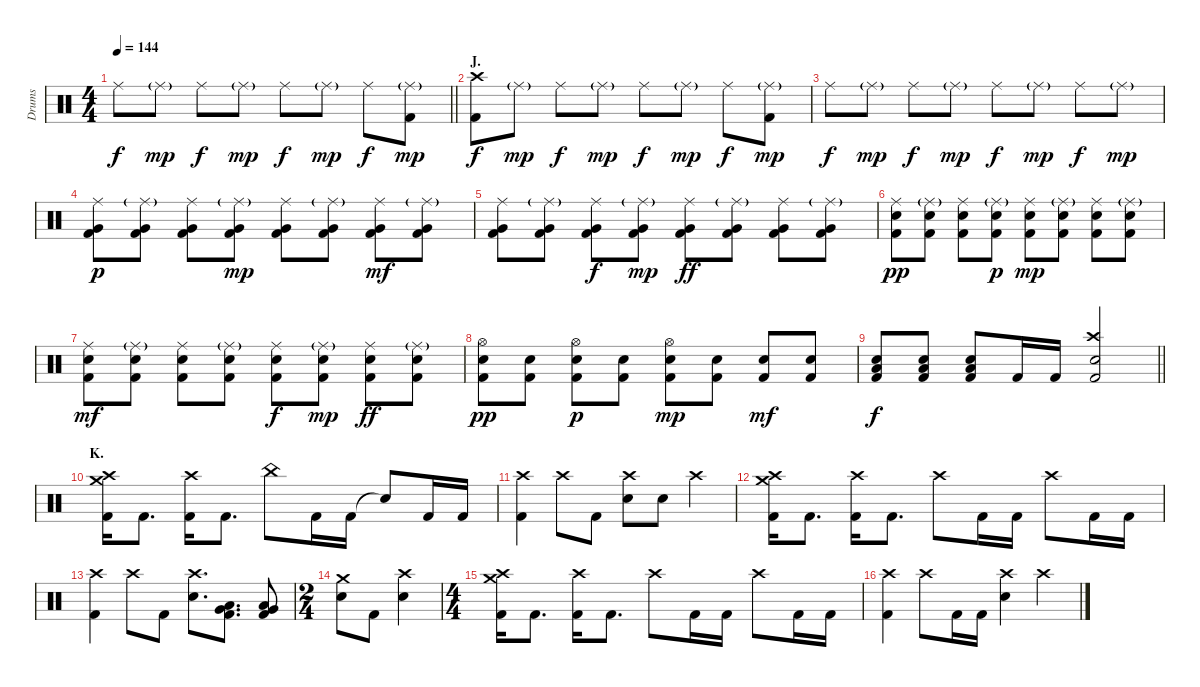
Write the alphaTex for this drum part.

\track ("Drums" "Drums") {instrument percussion}
\staff {score}
\articulation defaults
\ts (4 4)
\tempo 144
\clef neutral
\barLineRight lightlight
\ks c "Ride (middle)".8{dy f} "Ride (middle)"{g}.8{dy mp} "Ride (middle)".8{dy f} "Ride (middle)"{g}.8{dy mp} "Ride (middle)".8{dy f} "Ride (middle)"{g}.8{dy mp} "Ride (middle)".8{dy f}
("Ride (middle)"{g} "Kick (hit) 2").8{dy mp} |
\section ("" "J.")
("Crash high (hit)" "Kick (hit) 2").8{dy f} "Ride (middle)"{g}.8{dy mp} "Ride (middle)".8{dy f} "Ride (middle)"{g}.8{dy mp} "Ride (middle)".8{dy f} "Ride (middle)"{g}.8{dy mp} "Ride (middle)".8{dy f} ("Ride (middle)"{g} "Kick (hit) 2").8{dy mp} |
"Ride (middle)".8{dy f} "Ride (middle)"{g}.8{dy mp} "Ride (middle)".8{dy f} "Ride (middle)"{g}.8{dy mp} "Ride (middle)".8{dy f} "Ride (middle)"{g}.8{dy mp} "Ride (middle)".8{dy f} "Ride (middle)"{g}.8{dy mp} |
("Ride (middle)" "Very Low Tom (hit)" "Kick (hit) 2").8{dy p} ("Ride (middle)"{g} "Very Low Tom (hit)" "Kick (hit) 2").8 ("Ride (middle)" "Very Low Tom (hit)" "Kick (hit) 2").8 ("Ride (middle)"{g} "Very Low Tom (hit)" "Kick (hit) 2").8{dy mp} ("Ride (middle)" "Very Low Tom (hit)" "Kick (hit) 2").8 ("Ride (middle)"{g} "Very Low Tom (hit)" "Kick (hit) 2").8 ("Ride (middle)" "Very Low Tom (hit)" "Kick (hit) 2").8{dy mf} ("Ride (middle)"{g} "Very Low Tom (hit)" "Kick (hit) 2").8 |
("Ride (middle)" "Very Low Tom (hit)" "Kick (hit) 2").8 ("Ride (middle)"{g} "Very Low Tom (hit)" "Kick (hit) 2").8 ("Ride (middle)" "Very Low Tom (hit)" "Kick (hit) 2").8{dy f} ("Ride (middle)"{g} "Very Low Tom (hit)" "Kick (hit) 2").8{dy mp} ("Ride (middle)" "Very Low Tom (hit)" "Kick (hit) 2").8{dy ff} ("Ride (middle)"{g} "Very Low Tom (hit)" "Kick (hit) 2").8 ("Ride (middle)" "Very Low Tom (hit)" "Kick (hit) 2").8 ("Ride (middle)"{g} "Very Low Tom (hit)" "Kick (hit) 2").8 |
("Ride (middle)" "Electric Snare (hit)" "Kick (hit) 2").8{dy pp} ("Ride (middle)"{g} "Electric Snare (hit)" "Kick (hit) 2").8 ("Ride (middle)" "Electric Snare (hit)" "Kick (hit) 2").8 ("Ride (middle)"{g} "Electric Snare (hit)" "Kick (hit) 2").8{dy p} ("Ride (middle)" "Electric Snare (hit)" "Kick (hit) 2").8{dy mp} ("Ride (middle)"{g} "Electric Snare (hit)" "Kick (hit) 2").8 ("Ride (middle)" "Electric Snare (hit)" "Kick (hit) 2").8 ("Ride (middle)"{g} "Electric Snare (hit)" "Kick (hit) 2").8 |
("Ride (middle)" "Electric Snare (hit)" "Kick (hit) 2").8{dy mf} ("Ride (middle)"{g} "Electric Snare (hit)" "Kick (hit) 2").8 ("Ride (middle)" "Electric Snare (hit)" "Kick (hit) 2").8 ("Ride (middle)"{g} "Electric Snare (hit)" "Kick (hit) 2").8 ("Ride (middle)" "Electric Snare (hit)" "Kick (hit) 2").8{dy f} ("Ride (middle)"{g} "Electric Snare (hit)" "Kick (hit) 2").8{dy mp} ("Ride (middle)" "Electric Snare (hit)" "Kick (hit) 2").8{dy ff} ("Ride (middle)"{g} "Electric Snare (hit)" "Kick (hit) 2").8 |
("Hi-Hat (open)" "Electric Snare (hit)" "Kick (hit) 2").8{dy pp} ("Electric Snare (hit)" "Kick (hit) 2").8 ("Hi-Hat (open)" "Electric Snare (hit)" "Kick (hit) 2").8{dy p} ("Electric Snare (hit)" "Kick (hit) 2").8 ("Hi-Hat (open)" "Electric Snare (hit)" "Kick (hit) 2").8{dy mp} ("Electric Snare (hit)" "Kick (hit) 2").8 ("Electric Snare (hit)" "Kick (hit) 2").8{dy mf} ("Electric Snare (hit)" "Kick (hit) 2").8 |
\barLineRight lightlight
("Electric Snare (hit)" "Low Floor Tom (hit)" "Kick (hit) 2").8{dy f} ("Electric Snare (hit)" "Low Floor Tom (hit)" "Kick (hit) 2").8 ("Electric Snare (hit)" "Low Floor Tom (hit)" "Kick (hit) 2").8 "Kick (hit) 2".16 "Kick (hit) 2".16 ("Crash high (hit)" "Electric Snare (hit)" "Kick (hit) 2").2 |
\section ("" "K.")
("Crash medium (hit)" "Crash high (hit)" "Kick (hit) 2").16 "Kick (hit) 2".8{d} ("Crash high (hit)" "Kick (hit) 2").16 "Kick (hit) 2".8{d} "China (hit)".8 "Kick (hit) 2".16 "Kick (hit) 2".16 "Snare (hit)"{t}.8 "Kick (hit) 2".16 "Kick (hit) 2".16 |
("Crash high (hit)" "Kick (hit) 2").4 "Crash high (hit)".8 "Kick (hit) 2".8 ("Crash high (hit)" "Electric Snare (hit)").8 "Electric Snare (hit)".8 "Crash high (hit)".4 |
("Crash medium (hit)" "Crash high (hit)" "Kick (hit) 2").16 "Kick (hit) 2".8{d} ("Crash high (hit)" "Kick (hit) 2").16 "Kick (hit) 2".8{d} "Crash high (hit)".8 "Kick (hit) 2".16 "Kick (hit) 2".16 "Crash high (hit)".8 "Kick (hit) 2".16 "Kick (hit) 2".16 |
("Crash high (hit)" "Kick (hit) 2").4 "Crash high (hit)".8 "Kick (hit) 2".8 ("Crash high (hit)" "Electric Snare (hit)").8{d} ("Very Low Tom (hit)" "Low Floor Tom (hit)" "Kick (hit) 2").8{d} ("Very Low Tom (hit)" "Low Floor Tom (hit)" "Kick (hit) 2").8 |
\ts (2 4)
("Crash medium (hit)" "Electric Snare (hit)").8 "Kick (hit) 2".8 ("Crash high (hit)" "Electric Snare (hit)").4 |
\ts (4 4)
("Crash medium (hit)" "Crash high (hit)" "Kick (hit) 2").16 "Kick (hit) 2".8{d} ("Crash high (hit)" "Kick (hit) 2").16 "Kick (hit) 2".8{d} "Crash high (hit)".8 "Kick (hit) 2".16 "Kick (hit) 2".16 "Crash high (hit)".8 "Kick (hit) 2".16 "Kick (hit) 2".16 |
("Crash high (hit)" "Kick (hit) 2").4 "Crash high (hit)".8 "Kick (hit) 2".16 "Kick (hit) 2".16 ("Crash high (hit)" "Electric Snare (hit)").4 "Crash high (hit)".4
